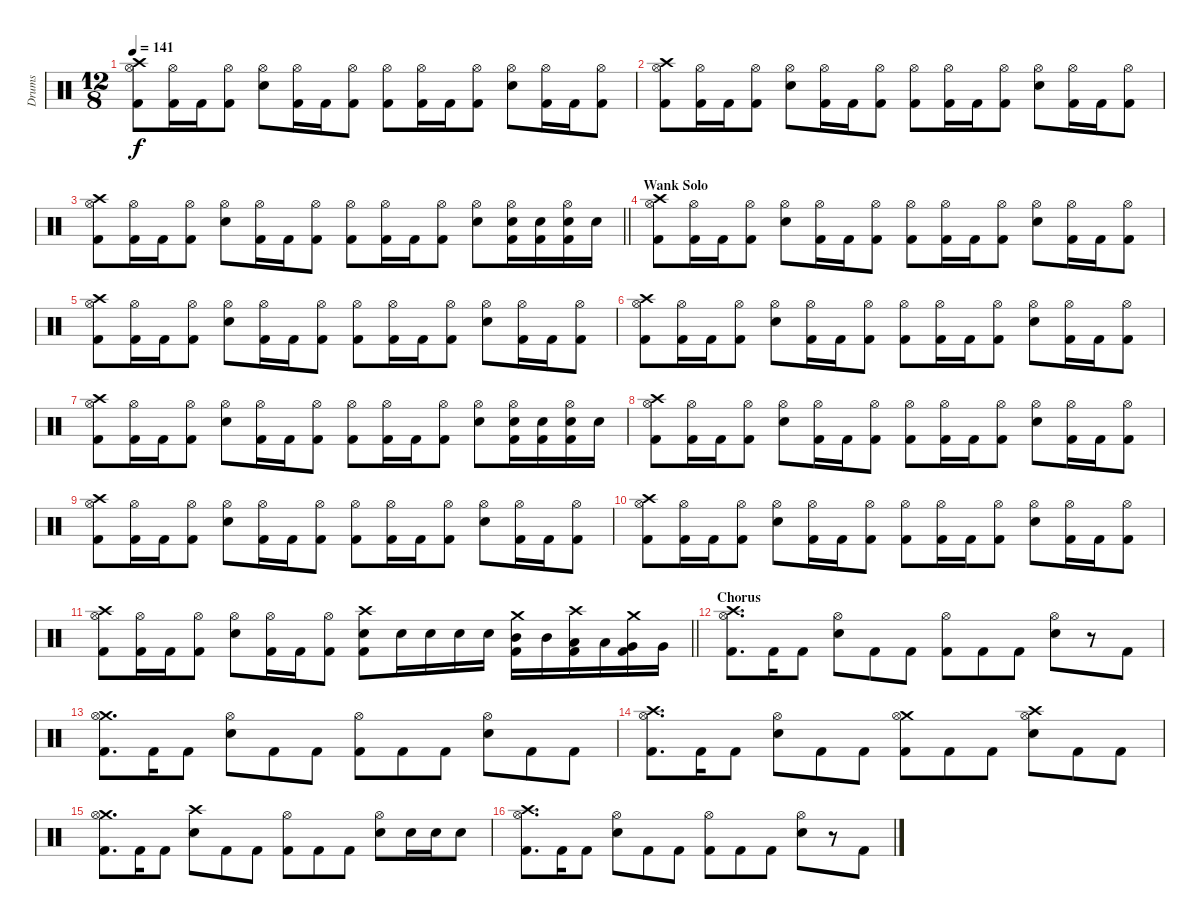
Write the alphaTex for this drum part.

\track ("Drums" "Drums") {instrument percussion}
\staff {score}
\articulation defaults
\ts (12 8)
\tempo 141
\clef neutral
\ks c
("Crash high (hit)" "Hi-Hat (open)" "Kick (hit) 2").8{dy f} ("Hi-Hat (open)" "Kick (hit) 2").16 "Kick (hit) 2".16 ("Hi-Hat (open)" "Kick (hit) 2").8 ("Hi-Hat (open)" "Snare (hit) 2").8 ("Hi-Hat (open)" "Kick (hit) 2").16 "Kick (hit) 2".16 ("Hi-Hat (open)" "Kick (hit) 2").8 ("Hi-Hat (open)" "Kick (hit) 2").8 ("Hi-Hat (open)" "Kick (hit) 2").16 "Kick (hit) 2".16 ("Hi-Hat (open)" "Kick (hit) 2").8 ("Hi-Hat (open)" "Snare (hit) 2").8 ("Hi-Hat (open)" "Kick (hit) 2").16 "Kick (hit) 2".16 ("Hi-Hat (open)" "Kick (hit) 2").8 |
("Crash high (hit)" "Hi-Hat (open)" "Kick (hit) 2").8 ("Hi-Hat (open)" "Kick (hit) 2").16 "Kick (hit) 2".16 ("Hi-Hat (open)" "Kick (hit) 2").8 ("Hi-Hat (open)" "Snare (hit) 2").8 ("Hi-Hat (open)" "Kick (hit) 2").16 "Kick (hit) 2".16 ("Hi-Hat (open)" "Kick (hit) 2").8 ("Hi-Hat (open)" "Kick (hit) 2").8 ("Hi-Hat (open)" "Kick (hit) 2").16 "Kick (hit) 2".16 ("Hi-Hat (open)" "Kick (hit) 2").8 ("Hi-Hat (open)" "Snare (hit) 2").8 ("Hi-Hat (open)" "Kick (hit) 2").16 "Kick (hit) 2".16 ("Hi-Hat (open)" "Kick (hit) 2").8 |
\barLineRight lightlight
("Crash high (hit)" "Hi-Hat (open)" "Kick (hit) 2").8 ("Hi-Hat (open)" "Kick (hit) 2").16 "Kick (hit) 2".16 ("Hi-Hat (open)" "Kick (hit) 2").8 ("Hi-Hat (open)" "Snare (hit) 2").8 ("Hi-Hat (open)" "Kick (hit) 2").16 "Kick (hit) 2".16 ("Hi-Hat (open)" "Kick (hit) 2").8 ("Hi-Hat (open)" "Kick (hit) 2").8 ("Hi-Hat (open)" "Kick (hit) 2").16 "Kick (hit) 2".16 ("Hi-Hat (open)" "Kick (hit) 2").8 ("Hi-Hat (open)" "Snare (hit) 2").8 ("Hi-Hat (open)" "Snare (hit) 2" "Kick (hit) 2").16 ("Snare (hit) 2" "Kick (hit) 2").16 ("Hi-Hat (open)" "Snare (hit) 2" "Kick (hit) 2").16 "Snare (hit) 2".16 |
\section ("" "Wank Solo")
("Crash high (hit)" "Hi-Hat (open)" "Kick (hit) 2").8 ("Hi-Hat (open)" "Kick (hit) 2").16 "Kick (hit) 2".16 ("Hi-Hat (open)" "Kick (hit) 2").8 ("Hi-Hat (open)" "Snare (hit) 2").8 ("Hi-Hat (open)" "Kick (hit) 2").16 "Kick (hit) 2".16 ("Hi-Hat (open)" "Kick (hit) 2").8 ("Hi-Hat (open)" "Kick (hit) 2").8 ("Hi-Hat (open)" "Kick (hit) 2").16 "Kick (hit) 2".16 ("Hi-Hat (open)" "Kick (hit) 2").8 ("Hi-Hat (open)" "Snare (hit) 2").8 ("Hi-Hat (open)" "Kick (hit) 2").16 "Kick (hit) 2".16 ("Hi-Hat (open)" "Kick (hit) 2").8 |
("Crash high (hit)" "Hi-Hat (open)" "Kick (hit) 2").8 ("Hi-Hat (open)" "Kick (hit) 2").16 "Kick (hit) 2".16 ("Hi-Hat (open)" "Kick (hit) 2").8 ("Hi-Hat (open)" "Snare (hit) 2").8 ("Hi-Hat (open)" "Kick (hit) 2").16 "Kick (hit) 2".16 ("Hi-Hat (open)" "Kick (hit) 2").8 ("Hi-Hat (open)" "Kick (hit) 2").8 ("Hi-Hat (open)" "Kick (hit) 2").16 "Kick (hit) 2".16 ("Hi-Hat (open)" "Kick (hit) 2").8 ("Hi-Hat (open)" "Snare (hit) 2").8 ("Hi-Hat (open)" "Kick (hit) 2").16 "Kick (hit) 2".16 ("Hi-Hat (open)" "Kick (hit) 2").8 |
("Crash high (hit)" "Hi-Hat (open)" "Kick (hit) 2").8 ("Hi-Hat (open)" "Kick (hit) 2").16 "Kick (hit) 2".16 ("Hi-Hat (open)" "Kick (hit) 2").8 ("Hi-Hat (open)" "Snare (hit) 2").8 ("Hi-Hat (open)" "Kick (hit) 2").16 "Kick (hit) 2".16 ("Hi-Hat (open)" "Kick (hit) 2").8 ("Hi-Hat (open)" "Kick (hit) 2").8 ("Hi-Hat (open)" "Kick (hit) 2").16 "Kick (hit) 2".16 ("Hi-Hat (open)" "Kick (hit) 2").8 ("Hi-Hat (open)" "Snare (hit) 2").8 ("Hi-Hat (open)" "Kick (hit) 2").16 "Kick (hit) 2".16 ("Hi-Hat (open)" "Kick (hit) 2").8 |
("Crash high (hit)" "Hi-Hat (open)" "Kick (hit) 2").8 ("Hi-Hat (open)" "Kick (hit) 2").16 "Kick (hit) 2".16 ("Hi-Hat (open)" "Kick (hit) 2").8 ("Hi-Hat (open)" "Snare (hit) 2").8 ("Hi-Hat (open)" "Kick (hit) 2").16 "Kick (hit) 2".16 ("Hi-Hat (open)" "Kick (hit) 2").8 ("Hi-Hat (open)" "Kick (hit) 2").8 ("Hi-Hat (open)" "Kick (hit) 2").16 "Kick (hit) 2".16 ("Hi-Hat (open)" "Kick (hit) 2").8 ("Hi-Hat (open)" "Snare (hit) 2").8 ("Hi-Hat (open)" "Snare (hit) 2" "Kick (hit) 2").16 ("Snare (hit) 2" "Kick (hit) 2").16 ("Hi-Hat (open)" "Snare (hit) 2" "Kick (hit) 2").16 "Snare (hit) 2".16 |
("Crash high (hit)" "Hi-Hat (open)" "Kick (hit) 2").8 ("Hi-Hat (open)" "Kick (hit) 2").16 "Kick (hit) 2".16 ("Hi-Hat (open)" "Kick (hit) 2").8 ("Hi-Hat (open)" "Snare (hit) 2").8 ("Hi-Hat (open)" "Kick (hit) 2").16 "Kick (hit) 2".16 ("Hi-Hat (open)" "Kick (hit) 2").8 ("Hi-Hat (open)" "Kick (hit) 2").8 ("Hi-Hat (open)" "Kick (hit) 2").16 "Kick (hit) 2".16 ("Hi-Hat (open)" "Kick (hit) 2").8 ("Hi-Hat (open)" "Snare (hit) 2").8 ("Hi-Hat (open)" "Kick (hit) 2").16 "Kick (hit) 2".16 ("Hi-Hat (open)" "Kick (hit) 2").8 |
("Crash high (hit)" "Hi-Hat (open)" "Kick (hit) 2").8 ("Hi-Hat (open)" "Kick (hit) 2").16 "Kick (hit) 2".16 ("Hi-Hat (open)" "Kick (hit) 2").8 ("Hi-Hat (open)" "Snare (hit) 2").8 ("Hi-Hat (open)" "Kick (hit) 2").16 "Kick (hit) 2".16 ("Hi-Hat (open)" "Kick (hit) 2").8 ("Hi-Hat (open)" "Kick (hit) 2").8 ("Hi-Hat (open)" "Kick (hit) 2").16 "Kick (hit) 2".16 ("Hi-Hat (open)" "Kick (hit) 2").8 ("Hi-Hat (open)" "Snare (hit) 2").8 ("Hi-Hat (open)" "Kick (hit) 2").16 "Kick (hit) 2".16 ("Hi-Hat (open)" "Kick (hit) 2").8 |
("Crash high (hit)" "Hi-Hat (open)" "Kick (hit) 2").8 ("Hi-Hat (open)" "Kick (hit) 2").16 "Kick (hit) 2".16 ("Hi-Hat (open)" "Kick (hit) 2").8 ("Hi-Hat (open)" "Snare (hit) 2").8 ("Hi-Hat (open)" "Kick (hit) 2").16 "Kick (hit) 2".16 ("Hi-Hat (open)" "Kick (hit) 2").8 ("Hi-Hat (open)" "Kick (hit) 2").8 ("Hi-Hat (open)" "Kick (hit) 2").16 "Kick (hit) 2".16 ("Hi-Hat (open)" "Kick (hit) 2").8 ("Hi-Hat (open)" "Snare (hit) 2").8 ("Hi-Hat (open)" "Kick (hit) 2").16 "Kick (hit) 2".16 ("Hi-Hat (open)" "Kick (hit) 2").8 |
\barLineRight lightlight
("Crash high (hit)" "Hi-Hat (open)" "Kick (hit) 2").8 ("Hi-Hat (open)" "Kick (hit) 2").16 "Kick (hit) 2".16 ("Hi-Hat (open)" "Kick (hit) 2").8 ("Hi-Hat (open)" "Snare (hit) 2").8 ("Hi-Hat (open)" "Kick (hit) 2").16 "Kick (hit) 2".16 ("Hi-Hat (open)" "Kick (hit) 2").8 ("Crash high (hit)" "Snare (hit) 2" "Kick (hit) 2").8 "Snare (hit) 2".16 "Snare (hit) 2".16 "Snare (hit) 2".16 "Snare (hit) 2".16 ("Crash medium (hit)" "Mid Tom (hit)" "Kick (hit) 2").16 "Mid Tom (hit)".16 ("Crash high (hit)" "Low Tom (hit)" "Kick (hit) 2").16 "Low Tom (hit)".16 ("Crash medium (hit)" "Very Low Tom (hit)" "Kick (hit) 2").16 "Very Low Tom (hit)".16 |
\section ("" "Chorus")
("Crash high (hit)" "Hi-Hat (open)" "Kick (hit) 2").8{d} "Kick (hit) 2".16 "Kick (hit) 2".8 ("Hi-Hat (open)" "Snare (hit) 2").8 "Kick (hit) 2".8 "Kick (hit) 2".8 ("Hi-Hat (open)" "Kick (hit) 2").8 "Kick (hit) 2".8 "Kick (hit) 2".8 ("Hi-Hat (open)" "Snare (hit) 2").8 r.8 "Kick (hit) 2".8 |
("Crash medium (hit)" "Hi-Hat (open)" "Kick (hit) 2").8{d} "Kick (hit) 2".16 "Kick (hit) 2".8 ("Hi-Hat (open)" "Snare (hit) 2").8 "Kick (hit) 2".8 "Kick (hit) 2".8 ("Hi-Hat (open)" "Kick (hit) 2").8 "Kick (hit) 2".8 "Kick (hit) 2".8 ("Hi-Hat (open)" "Snare (hit) 2").8 "Kick (hit) 2".8 "Kick (hit) 2".8 |
("Crash high (hit)" "Hi-Hat (open)" "Kick (hit) 2").8{d} "Kick (hit) 2".16 "Kick (hit) 2".8 ("Hi-Hat (open)" "Snare (hit) 2").8 "Kick (hit) 2".8 "Kick (hit) 2".8 ("Crash medium (hit)" "Hi-Hat (open)" "Kick (hit) 2").8 "Kick (hit) 2".8 "Kick (hit) 2".8 ("Crash high (hit)" "Hi-Hat (open)" "Snare (hit) 2").8 "Kick (hit) 2".8 "Kick (hit) 2".8 |
("Crash medium (hit)" "Hi-Hat (open)" "Kick (hit) 2").8{d} "Kick (hit) 2".16 "Kick (hit) 2".8 ("Crash high (hit)" "Snare (hit) 2").8 "Kick (hit) 2".8 "Kick (hit) 2".8 ("Hi-Hat (open)" "Kick (hit) 2").8 "Kick (hit) 2".8 "Kick (hit) 2".8 ("Hi-Hat (open)" "Snare (hit) 2").8 "Snare (hit) 2".16 "Snare (hit) 2".16 "Snare (hit) 2".8 |
("Crash high (hit)" "Hi-Hat (open)" "Kick (hit) 2").8{d} "Kick (hit) 2".16 "Kick (hit) 2".8 ("Hi-Hat (open)" "Snare (hit) 2").8 "Kick (hit) 2".8 "Kick (hit) 2".8 ("Hi-Hat (open)" "Kick (hit) 2").8 "Kick (hit) 2".8 "Kick (hit) 2".8 ("Hi-Hat (open)" "Snare (hit) 2").8 r.8 "Kick (hit) 2".8
